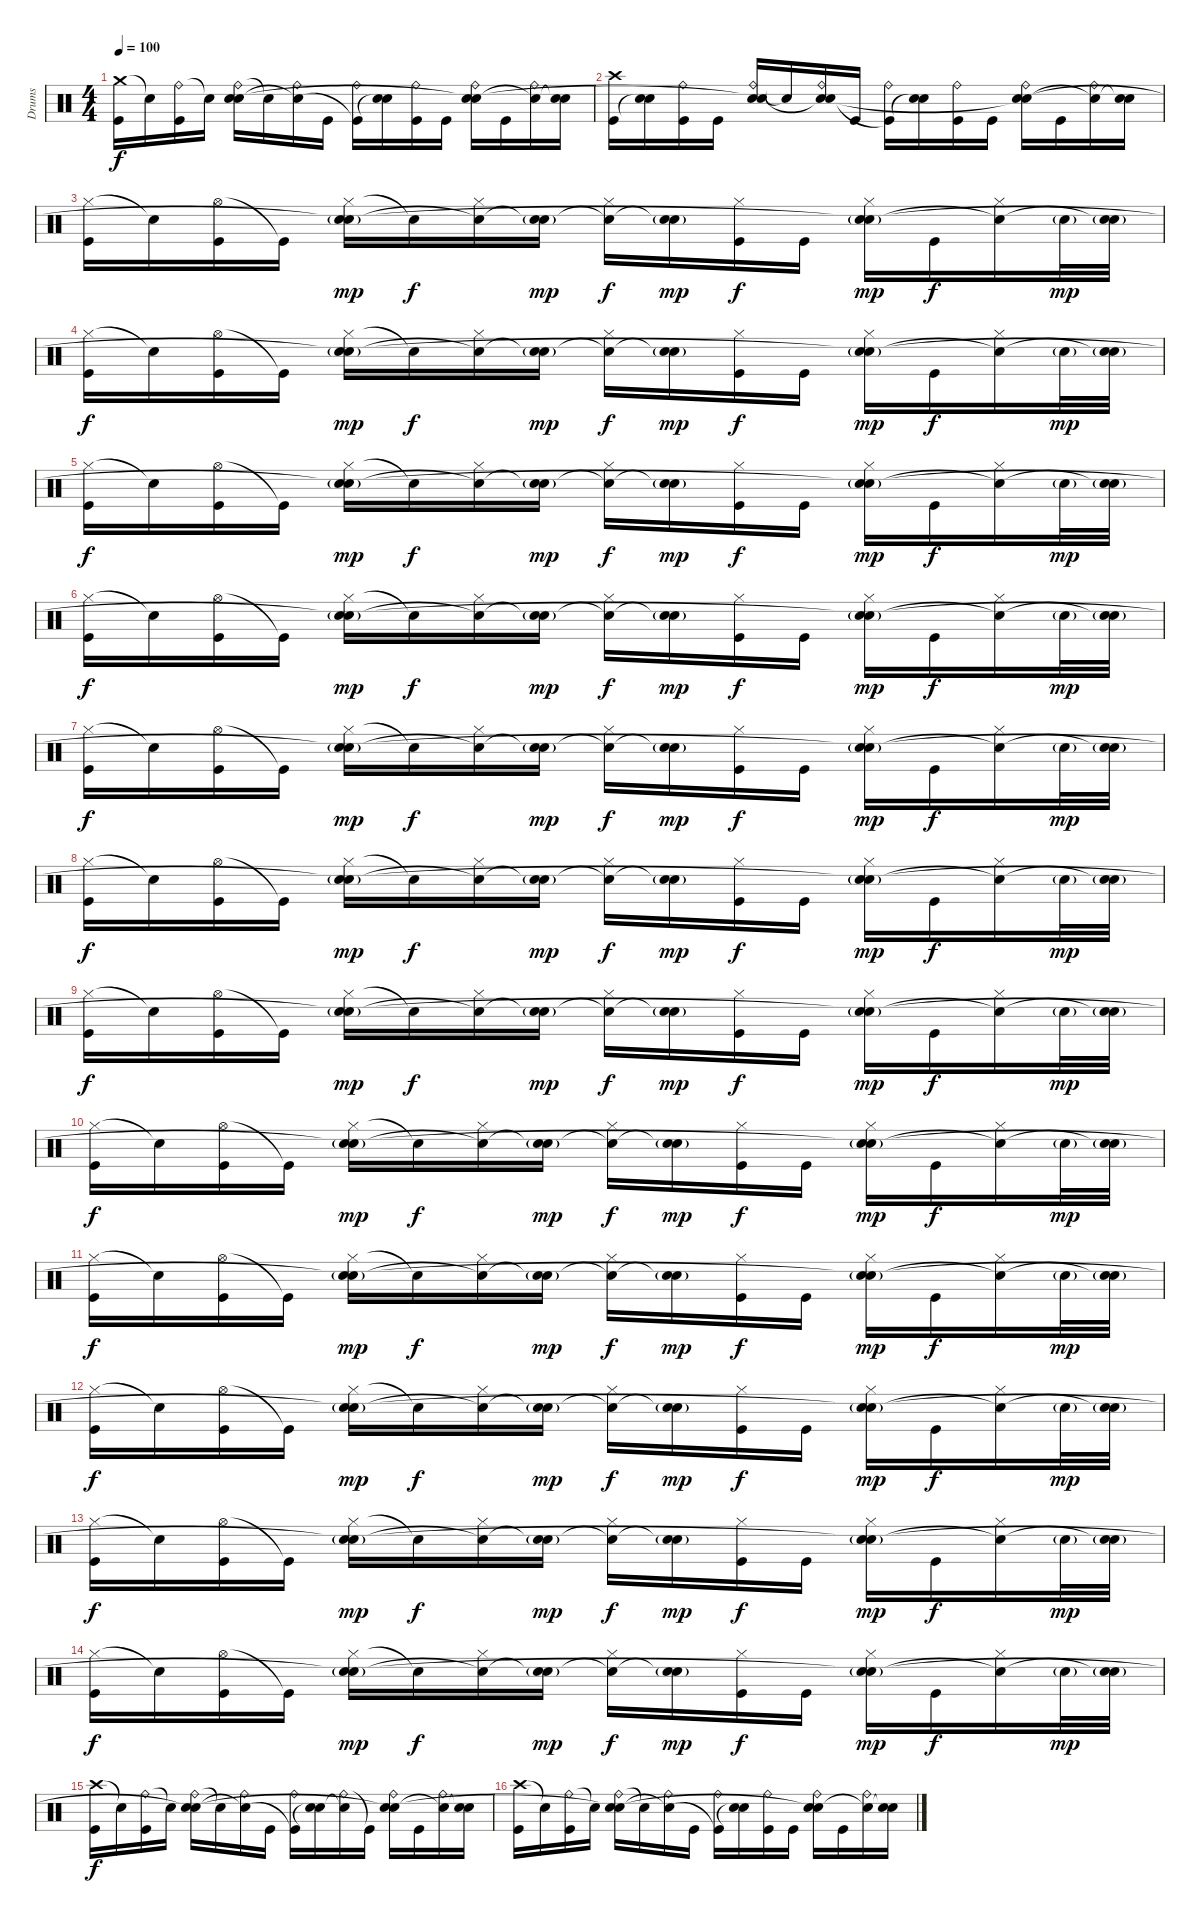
\track ("Drums" "Drums") {instrument percussion}
\staff {score}
\articulation defaults
\ts (4 4)
\tempo 100
\clef neutral
\ks c
("Crash medium (hit)" "Kick (hit)").16{dy f} "Snare (hit)"{t}.16 ("Ride (bell)" "Kick (hit)").16 "Snare (hit)"{t}.16 ("Ride (bell)" "Electric Snare (hit)" "Snare (hit)"{t}).16 "Snare (hit)"{t}.16 ("Ride (bell)" "Snare (hit)"{t}).16 "Kick (hit)".16 ("Ride (bell)" "Kick (hit)"{t}).16 ("Electric Snare (hit)" "Snare (hit)"{t}).16 ("Ride (bell)" "Kick (hit)").16 "Kick (hit)".16 ("Ride (bell)" "Electric Snare (hit)" "Snare (hit)"{t}).16 "Kick (hit)".16 ("Ride (bell)" "Snare (hit)"{t}).16 ("Electric Snare (hit)" "Snare (hit)"{t}).16 |
("Crash high (hit)" "Kick (hit)").16 ("Electric Snare (hit)" "Snare (hit)"{t}).16 ("Ride (bell)" "Kick (hit)").16 "Kick (hit)".16 ("Ride (bell)" "Electric Snare (hit)" "Snare (hit)"{t}).16 "Snare (hit)"{t}.16 ("Ride (bell)" "Electric Snare (hit)" "Snare (hit)"{t}).16 "Kick (hit)".16 ("Ride (bell)" "Kick (hit)"{t}).16 ("Electric Snare (hit)" "Snare (hit)"{t}).16 ("Ride (bell)" "Kick (hit)").16 "Kick (hit)".16 ("Ride (bell)" "Electric Snare (hit)" "Snare (hit)"{t}).16 "Kick (hit)".16 ("Ride (bell)" "Snare (hit)"{t}).16 ("Electric Snare (hit)" "Snare (hit)"{t}).16 |
("Hi-Hat (closed)" "Kick (hit)").16 "Snare (hit)"{t}.16 ("Hi-Hat (open)" "Kick (hit)").16 "Kick (hit)"{t}.16 ("Hi-Hat (closed)" "Snare (hit) 2"{g} "Snare (hit)"{t}).16{dy mp} "Snare (hit)"{t}.16{dy f} ("Hi-Hat (closed)" "Snare (hit)"{t}).16 ("Snare (hit) 2"{g} "Snare (hit)"{t}).16{dy mp} ("Hi-Hat (closed)" "Snare (hit)"{t}).16{dy f} ("Snare (hit) 2"{g} "Snare (hit)"{t}).16{dy mp} ("Hi-Hat (closed)" "Kick (hit)").16{dy f} "Kick (hit)".16 ("Hi-Hat (closed)" "Snare (hit) 2"{g} "Snare (hit)"{t}).16{dy mp} "Kick (hit)".16{dy f} ("Hi-Hat (closed)" "Snare (hit)"{t}).16 "Electric Snare (hit)"{g}.32{dy mp} ("Electric Snare (hit)"{g} "Snare (hit)"{t}).32 |
("Hi-Hat (closed)" "Kick (hit)").16{dy f} "Snare (hit)"{t}.16 ("Hi-Hat (open)" "Kick (hit)").16 "Kick (hit)"{t}.16 ("Hi-Hat (closed)" "Snare (hit) 2"{g} "Snare (hit)"{t}).16{dy mp} "Snare (hit)"{t}.16{dy f} ("Hi-Hat (closed)" "Snare (hit)"{t}).16 ("Snare (hit) 2"{g} "Snare (hit)"{t}).16{dy mp} ("Hi-Hat (closed)" "Snare (hit)"{t}).16{dy f} ("Snare (hit) 2"{g} "Snare (hit)"{t}).16{dy mp} ("Hi-Hat (closed)" "Kick (hit)").16{dy f} "Kick (hit)".16 ("Hi-Hat (closed)" "Snare (hit) 2"{g} "Snare (hit)"{t}).16{dy mp} "Kick (hit)".16{dy f} ("Hi-Hat (closed)" "Snare (hit)"{t}).16 "Electric Snare (hit)"{g}.32{dy mp} ("Electric Snare (hit)"{g} "Snare (hit)"{t}).32 |
("Hi-Hat (closed)" "Kick (hit)").16{dy f} "Snare (hit)"{t}.16 ("Hi-Hat (open)" "Kick (hit)").16 "Kick (hit)"{t}.16 ("Hi-Hat (closed)" "Snare (hit) 2"{g} "Snare (hit)"{t}).16{dy mp} "Snare (hit)"{t}.16{dy f} ("Hi-Hat (closed)" "Snare (hit)"{t}).16 ("Snare (hit) 2"{g} "Snare (hit)"{t}).16{dy mp} ("Hi-Hat (closed)" "Snare (hit)"{t}).16{dy f} ("Snare (hit) 2"{g} "Snare (hit)"{t}).16{dy mp} ("Hi-Hat (closed)" "Kick (hit)").16{dy f} "Kick (hit)".16 ("Hi-Hat (closed)" "Snare (hit) 2"{g} "Snare (hit)"{t}).16{dy mp} "Kick (hit)".16{dy f} ("Hi-Hat (closed)" "Snare (hit)"{t}).16 "Electric Snare (hit)"{g}.32{dy mp} ("Electric Snare (hit)"{g} "Snare (hit)"{t}).32 |
("Hi-Hat (closed)" "Kick (hit)").16{dy f} "Snare (hit)"{t}.16 ("Hi-Hat (open)" "Kick (hit)").16 "Kick (hit)"{t}.16 ("Hi-Hat (closed)" "Snare (hit) 2"{g} "Snare (hit)"{t}).16{dy mp} "Snare (hit)"{t}.16{dy f} ("Hi-Hat (closed)" "Snare (hit)"{t}).16 ("Snare (hit) 2"{g} "Snare (hit)"{t}).16{dy mp} ("Hi-Hat (closed)" "Snare (hit)"{t}).16{dy f} ("Snare (hit) 2"{g} "Snare (hit)"{t}).16{dy mp} ("Hi-Hat (closed)" "Kick (hit)").16{dy f} "Kick (hit)".16 ("Hi-Hat (closed)" "Snare (hit) 2"{g} "Snare (hit)"{t}).16{dy mp} "Kick (hit)".16{dy f} ("Hi-Hat (closed)" "Snare (hit)"{t}).16 "Electric Snare (hit)"{g}.32{dy mp} ("Electric Snare (hit)"{g} "Snare (hit)"{t}).32 |
("Hi-Hat (closed)" "Kick (hit)").16{dy f} "Snare (hit)"{t}.16 ("Hi-Hat (open)" "Kick (hit)").16 "Kick (hit)"{t}.16 ("Hi-Hat (closed)" "Snare (hit) 2"{g} "Snare (hit)"{t}).16{dy mp} "Snare (hit)"{t}.16{dy f} ("Hi-Hat (closed)" "Snare (hit)"{t}).16 ("Snare (hit) 2"{g} "Snare (hit)"{t}).16{dy mp} ("Hi-Hat (closed)" "Snare (hit)"{t}).16{dy f} ("Snare (hit) 2"{g} "Snare (hit)"{t}).16{dy mp} ("Hi-Hat (closed)" "Kick (hit)").16{dy f} "Kick (hit)".16 ("Hi-Hat (closed)" "Snare (hit) 2"{g} "Snare (hit)"{t}).16{dy mp} "Kick (hit)".16{dy f} ("Hi-Hat (closed)" "Snare (hit)"{t}).16 "Electric Snare (hit)"{g}.32{dy mp} ("Electric Snare (hit)"{g} "Snare (hit)"{t}).32 |
("Hi-Hat (closed)" "Kick (hit)").16{dy f} "Snare (hit)"{t}.16 ("Hi-Hat (open)" "Kick (hit)").16 "Kick (hit)"{t}.16 ("Hi-Hat (closed)" "Snare (hit) 2"{g} "Snare (hit)"{t}).16{dy mp} "Snare (hit)"{t}.16{dy f} ("Hi-Hat (closed)" "Snare (hit)"{t}).16 ("Snare (hit) 2"{g} "Snare (hit)"{t}).16{dy mp} ("Hi-Hat (closed)" "Snare (hit)"{t}).16{dy f} ("Snare (hit) 2"{g} "Snare (hit)"{t}).16{dy mp} ("Hi-Hat (closed)" "Kick (hit)").16{dy f} "Kick (hit)".16 ("Hi-Hat (closed)" "Snare (hit) 2"{g} "Snare (hit)"{t}).16{dy mp} "Kick (hit)".16{dy f} ("Hi-Hat (closed)" "Snare (hit)"{t}).16 "Electric Snare (hit)"{g}.32{dy mp} ("Electric Snare (hit)"{g} "Snare (hit)"{t}).32 |
("Hi-Hat (closed)" "Kick (hit)").16{dy f} "Snare (hit)"{t}.16 ("Hi-Hat (open)" "Kick (hit)").16 "Kick (hit)"{t}.16 ("Hi-Hat (closed)" "Snare (hit) 2"{g} "Snare (hit)"{t}).16{dy mp} "Snare (hit)"{t}.16{dy f} ("Hi-Hat (closed)" "Snare (hit)"{t}).16 ("Snare (hit) 2"{g} "Snare (hit)"{t}).16{dy mp} ("Hi-Hat (closed)" "Snare (hit)"{t}).16{dy f} ("Snare (hit) 2"{g} "Snare (hit)"{t}).16{dy mp} ("Hi-Hat (closed)" "Kick (hit)").16{dy f} "Kick (hit)".16 ("Hi-Hat (closed)" "Snare (hit) 2"{g} "Snare (hit)"{t}).16{dy mp} "Kick (hit)".16{dy f} ("Hi-Hat (closed)" "Snare (hit)"{t}).16 "Electric Snare (hit)"{g}.32{dy mp} ("Electric Snare (hit)"{g} "Snare (hit)"{t}).32 |
("Hi-Hat (closed)" "Kick (hit)").16{dy f} "Snare (hit)"{t}.16 ("Hi-Hat (open)" "Kick (hit)").16 "Kick (hit)"{t}.16 ("Hi-Hat (closed)" "Snare (hit) 2"{g} "Snare (hit)"{t}).16{dy mp} "Snare (hit)"{t}.16{dy f} ("Hi-Hat (closed)" "Snare (hit)"{t}).16 ("Snare (hit) 2"{g} "Snare (hit)"{t}).16{dy mp} ("Hi-Hat (closed)" "Snare (hit)"{t}).16{dy f} ("Snare (hit) 2"{g} "Snare (hit)"{t}).16{dy mp} ("Hi-Hat (closed)" "Kick (hit)").16{dy f} "Kick (hit)".16 ("Hi-Hat (closed)" "Snare (hit) 2"{g} "Snare (hit)"{t}).16{dy mp} "Kick (hit)".16{dy f} ("Hi-Hat (closed)" "Snare (hit)"{t}).16 "Electric Snare (hit)"{g}.32{dy mp} ("Electric Snare (hit)"{g} "Snare (hit)"{t}).32 |
("Hi-Hat (closed)" "Kick (hit)").16{dy f} "Snare (hit)"{t}.16 ("Hi-Hat (open)" "Kick (hit)").16 "Kick (hit)"{t}.16 ("Hi-Hat (closed)" "Snare (hit) 2"{g} "Snare (hit)"{t}).16{dy mp} "Snare (hit)"{t}.16{dy f} ("Hi-Hat (closed)" "Snare (hit)"{t}).16 ("Snare (hit) 2"{g} "Snare (hit)"{t}).16{dy mp} ("Hi-Hat (closed)" "Snare (hit)"{t}).16{dy f} ("Snare (hit) 2"{g} "Snare (hit)"{t}).16{dy mp} ("Hi-Hat (closed)" "Kick (hit)").16{dy f} "Kick (hit)".16 ("Hi-Hat (closed)" "Snare (hit) 2"{g} "Snare (hit)"{t}).16{dy mp} "Kick (hit)".16{dy f} ("Hi-Hat (closed)" "Snare (hit)"{t}).16 "Electric Snare (hit)"{g}.32{dy mp} ("Electric Snare (hit)"{g} "Snare (hit)"{t}).32 |
("Hi-Hat (closed)" "Kick (hit)").16{dy f} "Snare (hit)"{t}.16 ("Hi-Hat (open)" "Kick (hit)").16 "Kick (hit)"{t}.16 ("Hi-Hat (closed)" "Snare (hit) 2"{g} "Snare (hit)"{t}).16{dy mp} "Snare (hit)"{t}.16{dy f} ("Hi-Hat (closed)" "Snare (hit)"{t}).16 ("Snare (hit) 2"{g} "Snare (hit)"{t}).16{dy mp} ("Hi-Hat (closed)" "Snare (hit)"{t}).16{dy f} ("Snare (hit) 2"{g} "Snare (hit)"{t}).16{dy mp} ("Hi-Hat (closed)" "Kick (hit)").16{dy f} "Kick (hit)".16 ("Hi-Hat (closed)" "Snare (hit) 2"{g} "Snare (hit)"{t}).16{dy mp} "Kick (hit)".16{dy f} ("Hi-Hat (closed)" "Snare (hit)"{t}).16 "Electric Snare (hit)"{g}.32{dy mp} ("Electric Snare (hit)"{g} "Snare (hit)"{t}).32 |
("Hi-Hat (closed)" "Kick (hit)").16{dy f} "Snare (hit)"{t}.16 ("Hi-Hat (open)" "Kick (hit)").16 "Kick (hit)"{t}.16 ("Hi-Hat (closed)" "Snare (hit) 2"{g} "Snare (hit)"{t}).16{dy mp} "Snare (hit)"{t}.16{dy f} ("Hi-Hat (closed)" "Snare (hit)"{t}).16 ("Snare (hit) 2"{g} "Snare (hit)"{t}).16{dy mp} ("Hi-Hat (closed)" "Snare (hit)"{t}).16{dy f} ("Snare (hit) 2"{g} "Snare (hit)"{t}).16{dy mp} ("Hi-Hat (closed)" "Kick (hit)").16{dy f} "Kick (hit)".16 ("Hi-Hat (closed)" "Snare (hit) 2"{g} "Snare (hit)"{t}).16{dy mp} "Kick (hit)".16{dy f} ("Hi-Hat (closed)" "Snare (hit)"{t}).16 "Electric Snare (hit)"{g}.32{dy mp} ("Electric Snare (hit)"{g} "Snare (hit)"{t}).32 |
("Hi-Hat (closed)" "Kick (hit)").16{dy f} "Snare (hit)"{t}.16 ("Hi-Hat (open)" "Kick (hit)").16 "Kick (hit)"{t}.16 ("Hi-Hat (closed)" "Snare (hit) 2"{g} "Snare (hit)"{t}).16{dy mp} "Snare (hit)"{t}.16{dy f} ("Hi-Hat (closed)" "Snare (hit)"{t}).16 ("Snare (hit) 2"{g} "Snare (hit)"{t}).16{dy mp} ("Hi-Hat (closed)" "Snare (hit)"{t}).16{dy f} ("Snare (hit) 2"{g} "Snare (hit)"{t}).16{dy mp} ("Hi-Hat (closed)" "Kick (hit)").16{dy f} "Kick (hit)".16 ("Hi-Hat (closed)" "Snare (hit) 2"{g} "Snare (hit)"{t}).16{dy mp} "Kick (hit)".16{dy f} ("Hi-Hat (closed)" "Snare (hit)"{t}).16 "Electric Snare (hit)"{g}.32{dy mp} ("Electric Snare (hit)"{g} "Snare (hit)"{t}).32 |
("Crash high (hit)" "Kick (hit)").16{dy f} "Snare (hit)"{t}.16 ("Ride (bell)" "Kick (hit)").16 "Snare (hit)"{t}.16 ("Ride (bell)" "Electric Snare (hit)" "Snare (hit)"{t}).16 "Snare (hit)"{t}.16 ("Ride (bell)" "Snare (hit)"{t}).16 "Kick (hit)".16 ("Ride (bell)" "Kick (hit)"{t}).16 ("Electric Snare (hit)" "Snare (hit)"{t}).16 ("Ride (bell)" "Snare (hit)"{t}).16 "Kick (hit)"{t}.16 ("Ride (bell)" "Electric Snare (hit)" "Snare (hit)"{t}).16 "Kick (hit)".16 ("Ride (bell)" "Snare (hit)"{t}).16 ("Electric Snare (hit)" "Snare (hit)"{t}).16 |
("Crash high (hit)" "Kick (hit)").16 "Snare (hit)"{t}.16 ("Ride (bell)" "Kick (hit)").16 "Snare (hit)"{t}.16 ("Ride (bell)" "Electric Snare (hit)" "Snare (hit)"{t}).16 "Snare (hit)"{t}.16 ("Ride (bell)" "Snare (hit)"{t}).16 "Kick (hit)".16 ("Ride (bell)" "Kick (hit)"{t}).16 ("Electric Snare (hit)" "Snare (hit)"{t}).16 ("Ride (bell)" "Kick (hit)").16 "Kick (hit)".16 ("Ride (bell)" "Electric Snare (hit)" "Snare (hit)"{t}).16 "Kick (hit)".16 ("Ride (bell)" "Snare (hit)"{t}).16 ("Electric Snare (hit)" "Snare (hit)"{t}).16
